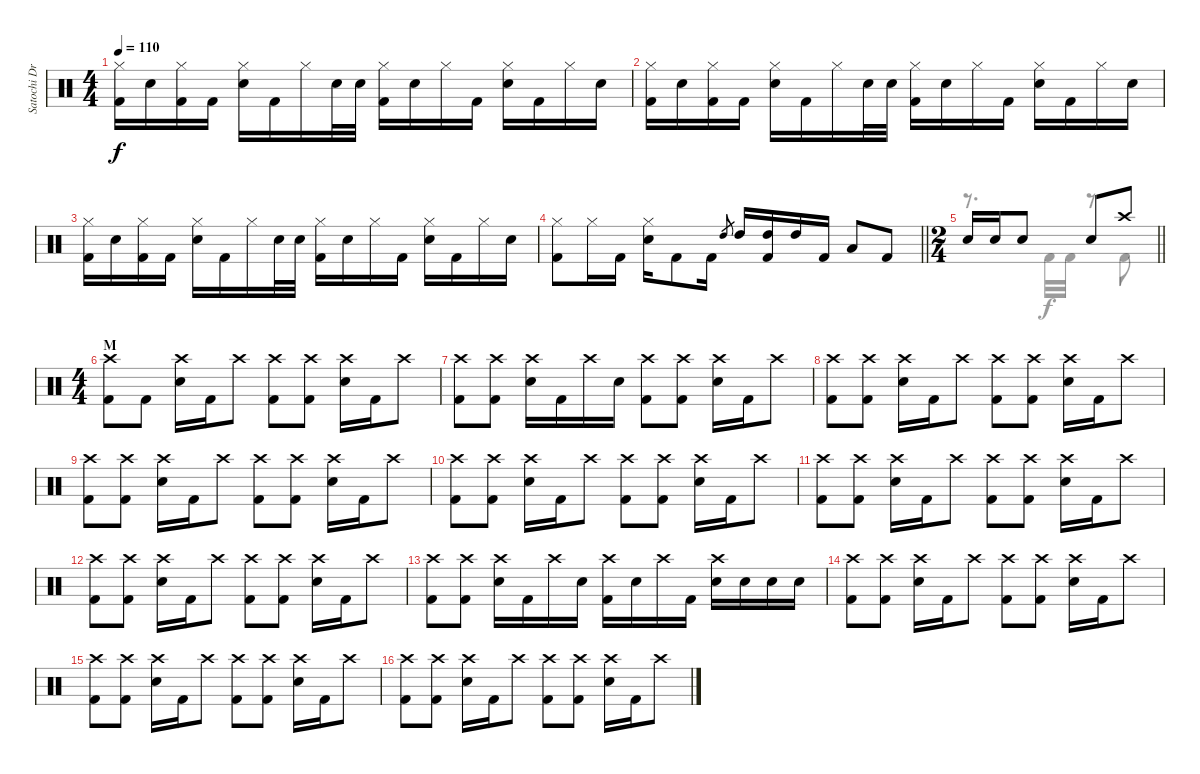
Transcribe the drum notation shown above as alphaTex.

\track ("Satochi Drums" "Satochi Dr") {instrument percussion}
\staff {score}
\articulation defaults
\voice
\ts (4 4)
\tempo 110
\clef neutral
\ks c
("Hi-Hat (closed)" "Kick (hit) 2").16{dy f} "Snare (hit) 2".16 ("Hi-Hat (closed)" "Kick (hit) 2").16 "Kick (hit) 2".16 ("Hi-Hat (closed)" "Snare (hit) 2").16 "Kick (hit) 2".16 "Hi-Hat (closed)".16 "Snare (hit) 2".32 "Snare (hit) 2".32 ("Hi-Hat (closed)" "Kick (hit) 2").16 "Snare (hit) 2".16 "Hi-Hat (closed)".16 "Kick (hit) 2".16 ("Hi-Hat (closed)" "Snare (hit) 2").16 "Kick (hit) 2".16 "Hi-Hat (closed)".16 "Snare (hit) 2".16 |
("Hi-Hat (closed)" "Kick (hit) 2").16 "Snare (hit) 2".16 ("Hi-Hat (closed)" "Kick (hit) 2").16 "Kick (hit) 2".16 ("Hi-Hat (closed)" "Snare (hit) 2").16 "Kick (hit) 2".16 "Hi-Hat (closed)".16 "Snare (hit) 2".32 "Snare (hit) 2".32 ("Hi-Hat (closed)" "Kick (hit) 2").16 "Snare (hit) 2".16 "Hi-Hat (closed)".16 "Kick (hit) 2".16 ("Hi-Hat (closed)" "Snare (hit) 2").16 "Kick (hit) 2".16 "Hi-Hat (closed)".16 "Snare (hit) 2".16 |
("Hi-Hat (closed)" "Kick (hit) 2").16 "Snare (hit) 2".16 ("Hi-Hat (closed)" "Kick (hit) 2").16 "Kick (hit) 2".16 ("Hi-Hat (closed)" "Snare (hit) 2").16 "Kick (hit) 2".16 "Hi-Hat (closed)".16 "Snare (hit) 2".32 "Snare (hit) 2".32 ("Hi-Hat (closed)" "Kick (hit) 2").16 "Snare (hit) 2".16 "Hi-Hat (closed)".16 "Kick (hit) 2".16 ("Hi-Hat (closed)" "Snare (hit) 2").16 "Kick (hit) 2".16 "Hi-Hat (closed)".16 "Snare (hit) 2".16 |
\barLineRight lightlight
("Hi-Hat (closed)" "Kick (hit) 2").8 "Hi-Hat (closed)".16 "Kick (hit) 2".16 ("Hi-Hat (closed)" "Snare (hit) 2").16 "Kick (hit) 2".8 "Kick (hit) 2".16 "High Tom (hit)".8{gr} "High Tom (hit)".16 ("High Tom (hit)" "Kick (hit) 2").16 "High Tom (hit)".16 "Kick (hit) 2".16 "Low Floor Tom (hit)".8 "Kick (hit) 2".8 |
\ts (2 4)
\barLineRight lightlight "Snare (hit) 2".16 "Snare (hit) 2".16 "Snare (hit) 2".8 "Snare (hit) 2".8 "Crash high (hit)".8
|
\ts (4 4)
\section ("" "M")
("Crash high (hit)" "Kick (hit) 2").8 "Kick (hit) 2".8 ("Crash high (hit)" "Snare (hit) 2").16 "Kick (hit) 2".16 "Crash high (hit)".8 ("Crash high (hit)" "Kick (hit) 2").8 ("Crash high (hit)" "Kick (hit) 2").8 ("Crash high (hit)" "Snare (hit) 2").16 "Kick (hit) 2".16 "Crash high (hit)".8 |
("Crash high (hit)" "Kick (hit) 2").8 ("Crash high (hit)" "Kick (hit) 2").8 ("Crash high (hit)" "Snare (hit) 2").16 "Kick (hit) 2".16 "Crash high (hit)".16 "Snare (hit) 2".16 ("Crash high (hit)" "Kick (hit) 2").8 ("Crash high (hit)" "Kick (hit) 2").8 ("Crash high (hit)" "Snare (hit) 2").16 "Kick (hit) 2".16 "Crash high (hit)".8 |
("Crash high (hit)" "Kick (hit) 2").8 ("Crash high (hit)" "Kick (hit) 2").8 ("Crash high (hit)" "Snare (hit) 2").16 "Kick (hit) 2".16 "Crash high (hit)".8 ("Crash high (hit)" "Kick (hit) 2").8 ("Crash high (hit)" "Kick (hit) 2").8 ("Crash high (hit)" "Snare (hit) 2").16 "Kick (hit) 2".16 "Crash high (hit)".8 |
("Crash high (hit)" "Kick (hit) 2").8 ("Crash high (hit)" "Kick (hit) 2").8 ("Crash high (hit)" "Snare (hit) 2").16 "Kick (hit) 2".16 "Crash high (hit)".8 ("Crash high (hit)" "Kick (hit) 2").8 ("Crash high (hit)" "Kick (hit) 2").8 ("Crash high (hit)" "Snare (hit) 2").16 "Kick (hit) 2".16 "Crash high (hit)".8 |
("Crash high (hit)" "Kick (hit) 2").8 ("Crash high (hit)" "Kick (hit) 2").8 ("Crash high (hit)" "Snare (hit) 2").16 "Kick (hit) 2".16 "Crash high (hit)".8 ("Crash high (hit)" "Kick (hit) 2").8 ("Crash high (hit)" "Kick (hit) 2").8 ("Crash high (hit)" "Snare (hit) 2").16 "Kick (hit) 2".16 "Crash high (hit)".8 |
("Crash high (hit)" "Kick (hit) 2").8 ("Crash high (hit)" "Kick (hit) 2").8 ("Crash high (hit)" "Snare (hit) 2").16 "Kick (hit) 2".16 "Crash high (hit)".8 ("Crash high (hit)" "Kick (hit) 2").8 ("Crash high (hit)" "Kick (hit) 2").8 ("Crash high (hit)" "Snare (hit) 2").16 "Kick (hit) 2".16 "Crash high (hit)".8 |
("Crash high (hit)" "Kick (hit) 2").8 ("Crash high (hit)" "Kick (hit) 2").8 ("Crash high (hit)" "Snare (hit) 2").16 "Kick (hit) 2".16 "Crash high (hit)".8 ("Crash high (hit)" "Kick (hit) 2").8 ("Crash high (hit)" "Kick (hit) 2").8 ("Crash high (hit)" "Snare (hit) 2").16 "Kick (hit) 2".16 "Crash high (hit)".8 |
("Crash high (hit)" "Kick (hit) 2").8 ("Crash high (hit)" "Kick (hit) 2").8 ("Crash high (hit)" "Snare (hit) 2").16 "Kick (hit) 2".16 "Crash high (hit)".16 "Snare (hit) 2".16 ("Crash high (hit)" "Kick (hit) 2").16 "Snare (hit) 2".16 "Crash high (hit)".16 "Kick (hit) 2".16 ("Crash high (hit)" "Snare (hit) 2").16 "Snare (hit) 2".16 "Snare (hit) 2".16 "Snare (hit) 2".16 |
("Crash high (hit)" "Kick (hit) 2").8 ("Crash high (hit)" "Kick (hit) 2").8 ("Crash high (hit)" "Snare (hit) 2").16 "Kick (hit) 2".16 "Crash high (hit)".8 ("Crash high (hit)" "Kick (hit) 2").8 ("Crash high (hit)" "Kick (hit) 2").8 ("Crash high (hit)" "Snare (hit) 2").16 "Kick (hit) 2".16 "Crash high (hit)".8 |
("Crash high (hit)" "Kick (hit) 2").8 ("Crash high (hit)" "Kick (hit) 2").8 ("Crash high (hit)" "Snare (hit) 2").16 "Kick (hit) 2".16 "Crash high (hit)".8 ("Crash high (hit)" "Kick (hit) 2").8 ("Crash high (hit)" "Kick (hit) 2").8 ("Crash high (hit)" "Snare (hit) 2").16 "Kick (hit) 2".16 "Crash high (hit)".8 |
("Crash high (hit)" "Kick (hit) 2").8 ("Crash high (hit)" "Kick (hit) 2").8 ("Crash high (hit)" "Snare (hit) 2").16 "Kick (hit) 2".16 "Crash high (hit)".8 ("Crash high (hit)" "Kick (hit) 2").8 ("Crash high (hit)" "Kick (hit) 2").8 ("Crash high (hit)" "Snare (hit) 2").16 "Kick (hit) 2".16 "Crash high (hit)".8
\voice
\clef neutral
\ottava regular
\simile none
\ks c
|
|
|
\barLineRight lightlight
|
\barLineRight lightlight
r.8{d} "Kick (hit) 2".32 "Kick (hit) 2".32 r.8 "Kick (hit) 2".8 |
|
|
|
|
|
|
|
|
|
|
